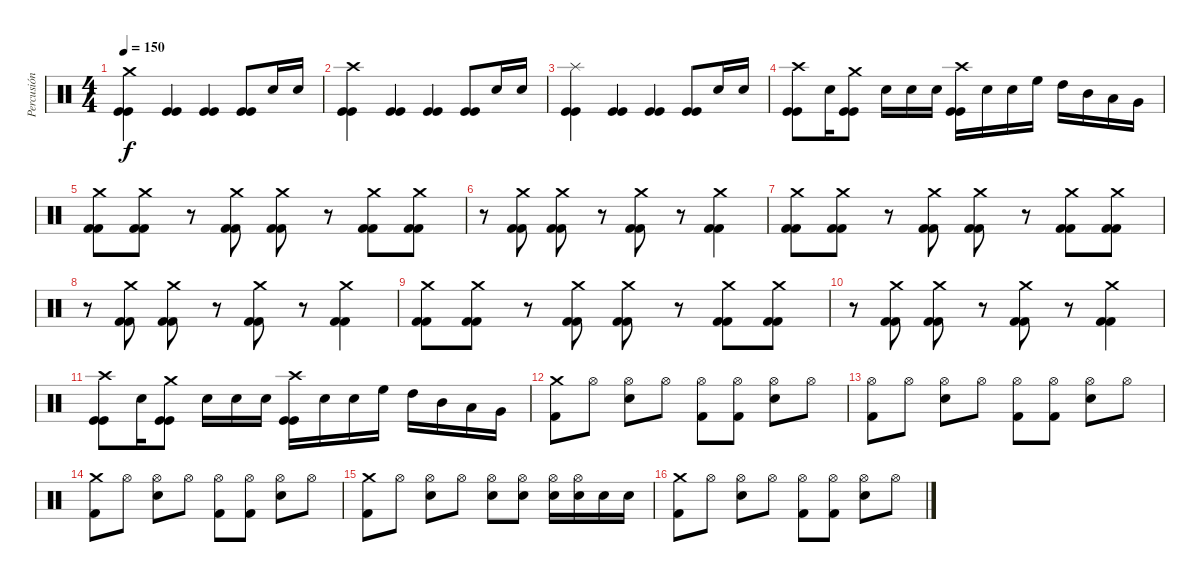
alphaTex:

\track ("Percusión" "Percusión") {instrument percussion}
\staff {score}
\articulation defaults
\ts (4 4)
\tempo 150
\clef neutral
\ks c
("Kick (hit)" "Kick (hit)" "Crash medium (hit)").4{dy f} ("Kick (hit)" "Kick (hit)").4 ("Kick (hit)" "Kick (hit)").4 ("Kick (hit)" "Kick (hit)").8 "Snare (hit) 2".16 "Snare (hit) 2".16 |
("Kick (hit)" "Kick (hit)" "Crash high (hit)").4 ("Kick (hit)" "Kick (hit)").4 ("Kick (hit)" "Kick (hit)").4 ("Kick (hit)" "Kick (hit)").8 "Snare (hit) 2".16 "Snare (hit) 2".16 |
("Kick (hit)" "Kick (hit)" "Splash (hit)").4 ("Kick (hit)" "Kick (hit)").4 ("Kick (hit)" "Kick (hit)").4 ("Kick (hit)" "Kick (hit)").8 "Snare (hit) 2".16 "Snare (hit) 2".16 |
("Kick (hit)" "Kick (hit)" "Crash high (hit)").8 "Snare (hit) 2".16 ("Kick (hit)" "Kick (hit)" "Crash medium (hit)").8 "Snare (hit) 2".16 "Snare (hit) 2".16 "Snare (hit) 2".16 ("Kick (hit)" "Kick (hit)" "Crash high (hit)").16 "Snare (hit) 2".16 "Snare (hit) 2".16 "High Floor Tom (hit)".16 "High Tom (hit)".16 "Mid Tom (hit)".16 "Low Tom (hit)".16 "Very Low Tom (hit)".16 |
("Crash medium (hit)" "Kick (hit) 2" "Kick (hit) 2").8 ("Crash medium (hit)" "Kick (hit) 2" "Kick (hit) 2").8 r.8 ("Crash medium (hit)" "Kick (hit) 2" "Kick (hit) 2").8 ("Crash medium (hit)" "Kick (hit) 2" "Kick (hit) 2").8 r.8 ("Crash medium (hit)" "Kick (hit) 2" "Kick (hit) 2").8 ("Crash medium (hit)" "Kick (hit) 2" "Kick (hit) 2").8 |
r.8 ("Crash medium (hit)" "Kick (hit) 2" "Kick (hit) 2").8 ("Crash medium (hit)" "Kick (hit) 2" "Kick (hit) 2").8 r.8 ("Crash medium (hit)" "Kick (hit) 2" "Kick (hit) 2").8 r.8 ("Crash medium (hit)" "Kick (hit) 2" "Kick (hit) 2").4 |
("Crash medium (hit)" "Kick (hit) 2" "Kick (hit) 2").8 ("Crash medium (hit)" "Kick (hit) 2" "Kick (hit) 2").8 r.8 ("Crash medium (hit)" "Kick (hit) 2" "Kick (hit) 2").8 ("Crash medium (hit)" "Kick (hit) 2" "Kick (hit) 2").8 r.8 ("Crash medium (hit)" "Kick (hit) 2" "Kick (hit) 2").8 ("Crash medium (hit)" "Kick (hit) 2" "Kick (hit) 2").8 |
r.8 ("Crash medium (hit)" "Kick (hit) 2" "Kick (hit) 2").8 ("Crash medium (hit)" "Kick (hit) 2" "Kick (hit) 2").8 r.8 ("Crash medium (hit)" "Kick (hit) 2" "Kick (hit) 2").8 r.8 ("Crash medium (hit)" "Kick (hit) 2" "Kick (hit) 2").4 |
("Crash medium (hit)" "Kick (hit) 2" "Kick (hit) 2").8 ("Crash medium (hit)" "Kick (hit) 2" "Kick (hit) 2").8 r.8 ("Crash medium (hit)" "Kick (hit) 2" "Kick (hit) 2").8 ("Crash medium (hit)" "Kick (hit) 2" "Kick (hit) 2").8 r.8 ("Crash medium (hit)" "Kick (hit) 2" "Kick (hit) 2").8 ("Crash medium (hit)" "Kick (hit) 2" "Kick (hit) 2").8 |
r.8 ("Crash medium (hit)" "Kick (hit) 2" "Kick (hit) 2").8 ("Crash medium (hit)" "Kick (hit) 2" "Kick (hit) 2").8 r.8 ("Crash medium (hit)" "Kick (hit) 2" "Kick (hit) 2").8 r.8 ("Crash medium (hit)" "Kick (hit) 2" "Kick (hit) 2").4 |
("Kick (hit)" "Kick (hit)" "Crash high (hit)").8 "Snare (hit) 2".16 ("Kick (hit)" "Kick (hit)" "Crash medium (hit)").8 "Snare (hit) 2".16 "Snare (hit) 2".16 "Snare (hit) 2".16 ("Kick (hit)" "Kick (hit)" "Crash high (hit)").16 "Snare (hit) 2".16 "Snare (hit) 2".16 "High Floor Tom (hit)".16 "High Tom (hit)".16 "Mid Tom (hit)".16 "Low Tom (hit)".16 "Very Low Tom (hit)".16 |
("Crash medium (hit)" "Kick (hit) 2").8 "Hi-Hat (open)".8 ("Hi-Hat (open)" "Snare (hit) 2").8 "Hi-Hat (open)".8 ("Hi-Hat (open)" "Kick (hit) 2").8 ("Hi-Hat (open)" "Kick (hit) 2").8 ("Hi-Hat (open)" "Snare (hit) 2").8 "Hi-Hat (open)".8 |
("Hi-Hat (open)" "Kick (hit) 2").8 "Hi-Hat (open)".8 ("Hi-Hat (open)" "Snare (hit) 2").8 "Hi-Hat (open)".8 ("Hi-Hat (open)" "Kick (hit) 2").8 ("Hi-Hat (open)" "Kick (hit) 2").8 ("Hi-Hat (open)" "Snare (hit) 2").8 "Hi-Hat (open)".8 |
("Crash medium (hit)" "Kick (hit) 2").8 "Hi-Hat (open)".8 ("Hi-Hat (open)" "Snare (hit) 2").8 "Hi-Hat (open)".8 ("Hi-Hat (open)" "Kick (hit) 2").8 ("Hi-Hat (open)" "Kick (hit) 2").8 ("Hi-Hat (open)" "Snare (hit) 2").8 "Hi-Hat (open)".8 |
("Crash medium (hit)" "Kick (hit) 2").8 "Hi-Hat (open)".8 ("Hi-Hat (open)" "Snare (hit) 2").8 "Hi-Hat (open)".8 ("Hi-Hat (open)" "Snare (hit) 2").8 ("Hi-Hat (open)" "Snare (hit) 2").8 ("Hi-Hat (open)" "Snare (hit) 2").16 ("Hi-Hat (open)" "Snare (hit) 2").16 "Snare (hit) 2".16 "Snare (hit) 2".16 |
("Crash medium (hit)" "Kick (hit) 2").8 "Hi-Hat (open)".8 ("Hi-Hat (open)" "Snare (hit) 2").8 "Hi-Hat (open)".8 ("Hi-Hat (open)" "Kick (hit) 2").8 ("Hi-Hat (open)" "Kick (hit) 2").8 ("Hi-Hat (open)" "Snare (hit) 2").8 "Hi-Hat (open)".8
